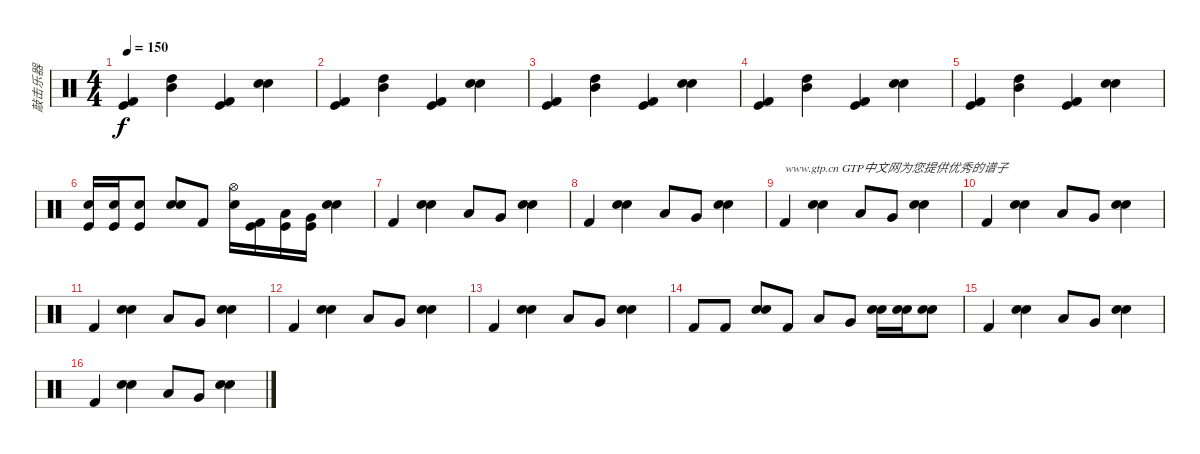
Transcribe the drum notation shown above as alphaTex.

\track ("敲击乐器" "敲击乐器") {instrument percussion}
\staff {score}
\articulation defaults
\ts (4 4)
\tempo 150
\clef neutral
\ks c
("Kick (hit) 2" "Kick (hit)").4{dy f} ("High Tom (hit)" "Mid Tom (hit)").4 ("Kick (hit) 2" "Kick (hit)").4 ("Electric Snare (hit)" "Snare (hit) 2").4 |
("Kick (hit) 2" "Kick (hit)").4 ("High Tom (hit)" "Mid Tom (hit)").4 ("Kick (hit) 2" "Kick (hit)").4 ("Electric Snare (hit)" "Snare (hit) 2").4 |
("Kick (hit) 2" "Kick (hit)").4 ("High Tom (hit)" "Mid Tom (hit)").4 ("Kick (hit) 2" "Kick (hit)").4 ("Electric Snare (hit)" "Snare (hit) 2").4 |
("Kick (hit) 2" "Kick (hit)").4 ("High Tom (hit)" "Mid Tom (hit)").4 ("Kick (hit) 2" "Kick (hit)").4 ("Electric Snare (hit)" "Snare (hit) 2").4 |
("Kick (hit) 2" "Kick (hit)").4 ("High Tom (hit)" "Mid Tom (hit)").4 ("Kick (hit) 2" "Kick (hit)").4 ("Electric Snare (hit)" "Snare (hit) 2").4 |
("Snare (hit) 2" "Kick (hit)").16 ("Snare (hit) 2" "Kick (hit)").16 ("Snare (hit) 2" "Kick (hit)").8 ("Electric Snare (hit)" "Snare (hit) 2").8 "Kick (hit) 2".8 ("Hi-Hat (open)" "Snare (hit) 2").16 ("Kick (hit) 2" "Kick (hit)").16 ("Low Tom (hit)" "Kick (hit)").16 ("Very Low Tom (hit)" "Kick (hit)").16 ("Electric Snare (hit)" "Snare (hit) 2").4 |
"Kick (hit) 2".4 ("Electric Snare (hit)" "Snare (hit) 2").4 "Low Tom (hit)".8 "Very Low Tom (hit)".8 ("Electric Snare (hit)" "Snare (hit) 2").4 |
"Kick (hit) 2".4 ("Electric Snare (hit)" "Snare (hit) 2").4 "Low Tom (hit)".8 "Very Low Tom (hit)".8 ("Electric Snare (hit)" "Snare (hit) 2").4 |
"Kick (hit) 2".4{txt "www.gtp.cn GTP中文网为您提供优秀的谱子"} ("Electric Snare (hit)" "Snare (hit) 2").4 "Low Tom (hit)".8 "Very Low Tom (hit)".8 ("Electric Snare (hit)" "Snare (hit) 2").4 |
"Kick (hit) 2".4 ("Electric Snare (hit)" "Snare (hit) 2").4 "Low Tom (hit)".8 "Very Low Tom (hit)".8 ("Electric Snare (hit)" "Snare (hit) 2").4 |
"Kick (hit) 2".4 ("Electric Snare (hit)" "Snare (hit) 2").4 "Low Tom (hit)".8 "Very Low Tom (hit)".8 ("Electric Snare (hit)" "Snare (hit) 2").4 |
"Kick (hit) 2".4 ("Electric Snare (hit)" "Snare (hit) 2").4 "Low Tom (hit)".8 "Very Low Tom (hit)".8 ("Electric Snare (hit)" "Snare (hit) 2").4 |
"Kick (hit) 2".4 ("Electric Snare (hit)" "Snare (hit) 2").4 "Low Tom (hit)".8 "Very Low Tom (hit)".8 ("Electric Snare (hit)" "Snare (hit) 2").4 |
"Kick (hit) 2".8 "Kick (hit) 2".8 ("Electric Snare (hit)" "Snare (hit) 2").8 "Kick (hit) 2".8 "Low Tom (hit)".8 "Very Low Tom (hit)".8 ("Electric Snare (hit)" "Snare (hit) 2").16 ("Electric Snare (hit)" "Snare (hit) 2").16 ("Electric Snare (hit)" "Snare (hit) 2").8 |
"Kick (hit) 2".4 ("Electric Snare (hit)" "Snare (hit) 2").4 "Low Tom (hit)".8 "Very Low Tom (hit)".8 ("Electric Snare (hit)" "Snare (hit) 2").4 |
"Kick (hit) 2".4 ("Electric Snare (hit)" "Snare (hit) 2").4 "Low Tom (hit)".8 "Very Low Tom (hit)".8 ("Electric Snare (hit)" "Snare (hit) 2").4
